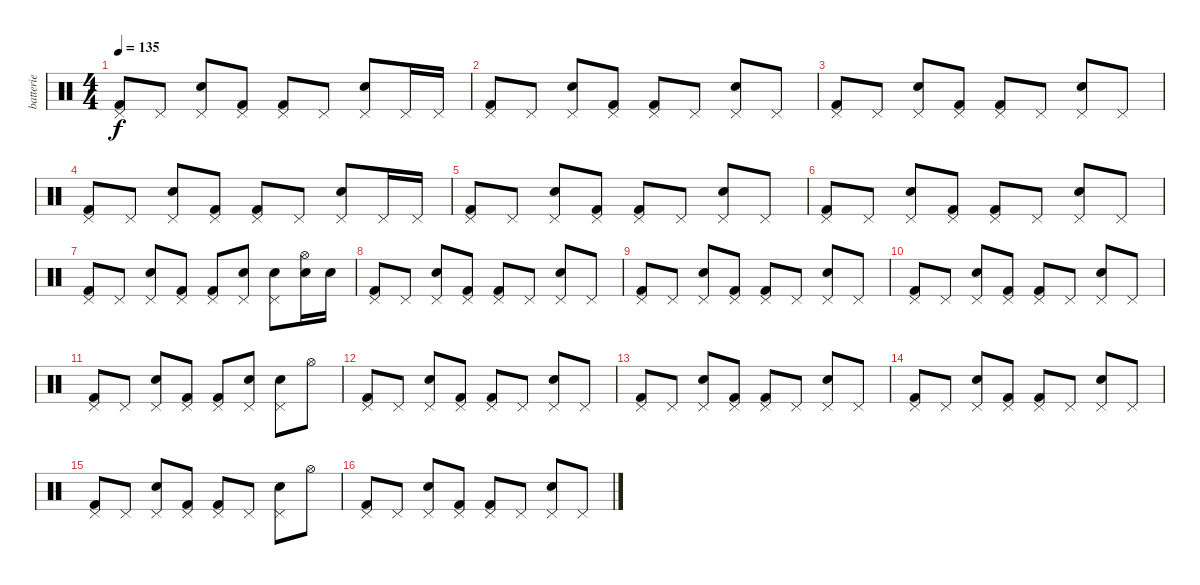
\track ("batterie" "batterie") {instrument percussion}
\staff {score}
\articulation defaults
\ts (4 4)
\tempo 135
\clef neutral
\ks c
("Pedal Hi-Hat (hit)" "Kick (hit) 2").8{dy f} "Pedal Hi-Hat (hit)".8 ("Pedal Hi-Hat (hit)" "Snare (hit) 2").8 ("Pedal Hi-Hat (hit)" "Kick (hit) 2").8 ("Pedal Hi-Hat (hit)" "Kick (hit) 2").8 "Pedal Hi-Hat (hit)".8 ("Pedal Hi-Hat (hit)" "Snare (hit) 2").8 "Pedal Hi-Hat (hit)".16 "Pedal Hi-Hat (hit)".16 |
("Pedal Hi-Hat (hit)" "Kick (hit) 2").8 "Pedal Hi-Hat (hit)".8 ("Pedal Hi-Hat (hit)" "Snare (hit) 2").8 ("Pedal Hi-Hat (hit)" "Kick (hit) 2").8 ("Pedal Hi-Hat (hit)" "Kick (hit) 2").8 "Pedal Hi-Hat (hit)".8 ("Pedal Hi-Hat (hit)" "Snare (hit) 2").8 "Pedal Hi-Hat (hit)".8 |
("Pedal Hi-Hat (hit)" "Kick (hit) 2").8 "Pedal Hi-Hat (hit)".8 ("Pedal Hi-Hat (hit)" "Snare (hit) 2").8 ("Pedal Hi-Hat (hit)" "Kick (hit) 2").8 ("Pedal Hi-Hat (hit)" "Kick (hit) 2").8 "Pedal Hi-Hat (hit)".8 ("Pedal Hi-Hat (hit)" "Snare (hit) 2").8 "Pedal Hi-Hat (hit)".8 |
("Pedal Hi-Hat (hit)" "Kick (hit) 2").8 "Pedal Hi-Hat (hit)".8 ("Pedal Hi-Hat (hit)" "Snare (hit) 2").8 ("Pedal Hi-Hat (hit)" "Kick (hit) 2").8 ("Pedal Hi-Hat (hit)" "Kick (hit) 2").8 "Pedal Hi-Hat (hit)".8 ("Pedal Hi-Hat (hit)" "Snare (hit) 2").8 "Pedal Hi-Hat (hit)".16 "Pedal Hi-Hat (hit)".16 |
("Pedal Hi-Hat (hit)" "Kick (hit) 2").8 "Pedal Hi-Hat (hit)".8 ("Pedal Hi-Hat (hit)" "Snare (hit) 2").8 ("Pedal Hi-Hat (hit)" "Kick (hit) 2").8 ("Pedal Hi-Hat (hit)" "Kick (hit) 2").8 "Pedal Hi-Hat (hit)".8 ("Pedal Hi-Hat (hit)" "Snare (hit) 2").8 "Pedal Hi-Hat (hit)".8 |
("Pedal Hi-Hat (hit)" "Kick (hit) 2").8 "Pedal Hi-Hat (hit)".8 ("Pedal Hi-Hat (hit)" "Snare (hit) 2").8 ("Pedal Hi-Hat (hit)" "Kick (hit) 2").8 ("Pedal Hi-Hat (hit)" "Kick (hit) 2").8 "Pedal Hi-Hat (hit)".8 ("Pedal Hi-Hat (hit)" "Snare (hit) 2").8 "Pedal Hi-Hat (hit)".8 |
("Pedal Hi-Hat (hit)" "Kick (hit) 2").8 "Pedal Hi-Hat (hit)".8 ("Pedal Hi-Hat (hit)" "Snare (hit) 2").8 ("Pedal Hi-Hat (hit)" "Kick (hit) 2").8 ("Pedal Hi-Hat (hit)" "Kick (hit) 2").8 ("Pedal Hi-Hat (hit)" "Snare (hit) 2").8 ("Pedal Hi-Hat (hit)" "Snare (hit) 2").8 ("Hi-Hat (open)" "Snare (hit) 2").16 "Snare (hit) 2".16 |
("Pedal Hi-Hat (hit)" "Kick (hit) 2").8 "Pedal Hi-Hat (hit)".8 ("Pedal Hi-Hat (hit)" "Snare (hit) 2").8 ("Pedal Hi-Hat (hit)" "Kick (hit) 2").8 ("Pedal Hi-Hat (hit)" "Kick (hit) 2").8 "Pedal Hi-Hat (hit)".8 ("Pedal Hi-Hat (hit)" "Snare (hit) 2").8 "Pedal Hi-Hat (hit)".8 |
("Pedal Hi-Hat (hit)" "Kick (hit) 2").8 "Pedal Hi-Hat (hit)".8 ("Pedal Hi-Hat (hit)" "Snare (hit) 2").8 ("Pedal Hi-Hat (hit)" "Kick (hit) 2").8 ("Pedal Hi-Hat (hit)" "Kick (hit) 2").8 "Pedal Hi-Hat (hit)".8 ("Pedal Hi-Hat (hit)" "Snare (hit) 2").8 "Pedal Hi-Hat (hit)".8 |
("Pedal Hi-Hat (hit)" "Kick (hit) 2").8 "Pedal Hi-Hat (hit)".8 ("Pedal Hi-Hat (hit)" "Snare (hit) 2").8 ("Pedal Hi-Hat (hit)" "Kick (hit) 2").8 ("Pedal Hi-Hat (hit)" "Kick (hit) 2").8 "Pedal Hi-Hat (hit)".8 ("Pedal Hi-Hat (hit)" "Snare (hit) 2").8 "Pedal Hi-Hat (hit)".8 |
("Pedal Hi-Hat (hit)" "Kick (hit) 2").8 "Pedal Hi-Hat (hit)".8 ("Pedal Hi-Hat (hit)" "Snare (hit) 2").8 ("Pedal Hi-Hat (hit)" "Kick (hit) 2").8 ("Pedal Hi-Hat (hit)" "Kick (hit) 2").8 ("Pedal Hi-Hat (hit)" "Snare (hit) 2").8 ("Pedal Hi-Hat (hit)" "Snare (hit) 2").8 "Hi-Hat (open)".8 |
("Pedal Hi-Hat (hit)" "Kick (hit) 2").8 "Pedal Hi-Hat (hit)".8 ("Pedal Hi-Hat (hit)" "Snare (hit) 2").8 ("Pedal Hi-Hat (hit)" "Kick (hit) 2").8 ("Pedal Hi-Hat (hit)" "Kick (hit) 2").8 "Pedal Hi-Hat (hit)".8 ("Pedal Hi-Hat (hit)" "Snare (hit) 2").8 "Pedal Hi-Hat (hit)".8 |
("Pedal Hi-Hat (hit)" "Kick (hit) 2").8 "Pedal Hi-Hat (hit)".8 ("Pedal Hi-Hat (hit)" "Snare (hit) 2").8 ("Pedal Hi-Hat (hit)" "Kick (hit) 2").8 ("Pedal Hi-Hat (hit)" "Kick (hit) 2").8 "Pedal Hi-Hat (hit)".8 ("Pedal Hi-Hat (hit)" "Snare (hit) 2").8 "Pedal Hi-Hat (hit)".8 |
("Pedal Hi-Hat (hit)" "Kick (hit) 2").8 "Pedal Hi-Hat (hit)".8 ("Pedal Hi-Hat (hit)" "Snare (hit) 2").8 ("Pedal Hi-Hat (hit)" "Kick (hit) 2").8 ("Pedal Hi-Hat (hit)" "Kick (hit) 2").8 "Pedal Hi-Hat (hit)".8 ("Pedal Hi-Hat (hit)" "Snare (hit) 2").8 "Pedal Hi-Hat (hit)".8 |
("Pedal Hi-Hat (hit)" "Kick (hit) 2").8 "Pedal Hi-Hat (hit)".8 ("Pedal Hi-Hat (hit)" "Snare (hit) 2").8 ("Pedal Hi-Hat (hit)" "Kick (hit) 2").8 ("Pedal Hi-Hat (hit)" "Kick (hit) 2").8 "Pedal Hi-Hat (hit)".8 ("Pedal Hi-Hat (hit)" "Snare (hit) 2").8 "Hi-Hat (open)".8 |
("Pedal Hi-Hat (hit)" "Kick (hit) 2").8 "Pedal Hi-Hat (hit)".8 ("Pedal Hi-Hat (hit)" "Snare (hit) 2").8 ("Pedal Hi-Hat (hit)" "Kick (hit) 2").8 ("Pedal Hi-Hat (hit)" "Kick (hit) 2").8 "Pedal Hi-Hat (hit)".8 ("Pedal Hi-Hat (hit)" "Snare (hit) 2").8 "Pedal Hi-Hat (hit)".8
